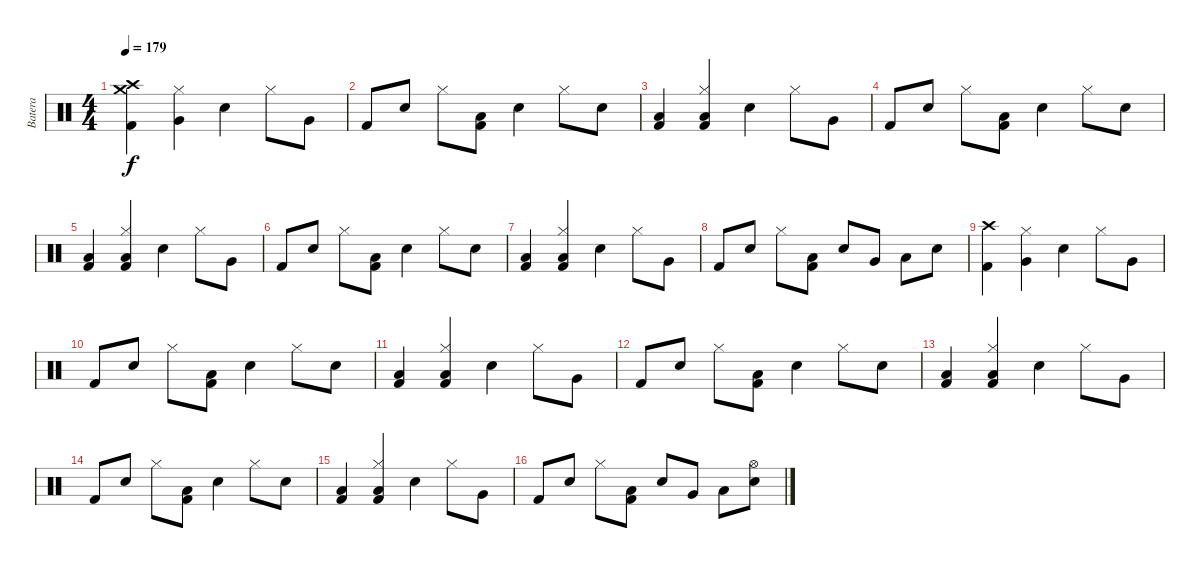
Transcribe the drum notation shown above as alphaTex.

\track ("Batera" "Batera") {instrument percussion}
\staff {score}
\articulation defaults
\ts (4 4)
\tempo 179
\clef neutral
\ks c
("Crash high (hit)" "Crash medium (hit)" "Kick (hit) 2").4{dy f} ("Hi-Hat (closed)" "Very Low Tom (hit)").4 "Electric Snare (hit)".4 "Hi-Hat (closed)".8 "Very Low Tom (hit)".8 |
"Kick (hit) 2".8 "Electric Snare (hit)".8 "Hi-Hat (closed)".8 ("Low Floor Tom (hit)" "Kick (hit) 2").8 "Electric Snare (hit)".4 "Hi-Hat (closed)".8 "Electric Snare (hit)".8 |
("Low Tom (hit)" "Kick (hit) 2").4 ("Hi-Hat (closed)" "Low Tom (hit)" "Kick (hit) 2").4 "Electric Snare (hit)".4 "Hi-Hat (closed)".8 "Very Low Tom (hit)".8 |
"Kick (hit) 2".8 "Electric Snare (hit)".8 "Hi-Hat (closed)".8 ("Low Floor Tom (hit)" "Kick (hit) 2").8 "Electric Snare (hit)".4 "Hi-Hat (closed)".8 "Electric Snare (hit)".8 |
("Low Tom (hit)" "Kick (hit) 2").4 ("Hi-Hat (closed)" "Low Tom (hit)" "Kick (hit) 2").4 "Electric Snare (hit)".4 "Hi-Hat (closed)".8 "Very Low Tom (hit)".8 |
"Kick (hit) 2".8 "Electric Snare (hit)".8 "Hi-Hat (closed)".8 ("Low Floor Tom (hit)" "Kick (hit) 2").8 "Electric Snare (hit)".4 "Hi-Hat (closed)".8 "Electric Snare (hit)".8 |
("Low Tom (hit)" "Kick (hit) 2").4 ("Hi-Hat (closed)" "Low Tom (hit)" "Kick (hit) 2").4 "Electric Snare (hit)".4 "Hi-Hat (closed)".8 "Very Low Tom (hit)".8 |
"Kick (hit) 2".8 "Electric Snare (hit)".8 "Hi-Hat (closed)".8 ("Low Floor Tom (hit)" "Kick (hit) 2").8 "Electric Snare (hit)".8 "Very Low Tom (hit)".8 "Low Floor Tom (hit)".8 "Electric Snare (hit)".8 |
("Crash high (hit)" "Kick (hit) 2").4 ("Hi-Hat (closed)" "Very Low Tom (hit)").4 "Electric Snare (hit)".4 "Hi-Hat (closed)".8 "Very Low Tom (hit)".8 |
"Kick (hit) 2".8 "Electric Snare (hit)".8 "Hi-Hat (closed)".8 ("Low Floor Tom (hit)" "Kick (hit) 2").8 "Electric Snare (hit)".4 "Hi-Hat (closed)".8 "Electric Snare (hit)".8 |
("Low Tom (hit)" "Kick (hit) 2").4 ("Hi-Hat (closed)" "Low Tom (hit)" "Kick (hit) 2").4 "Electric Snare (hit)".4 "Hi-Hat (closed)".8 "Very Low Tom (hit)".8 |
"Kick (hit) 2".8 "Electric Snare (hit)".8 "Hi-Hat (closed)".8 ("Low Floor Tom (hit)" "Kick (hit) 2").8 "Electric Snare (hit)".4 "Hi-Hat (closed)".8 "Electric Snare (hit)".8 |
("Low Tom (hit)" "Kick (hit) 2").4 ("Hi-Hat (closed)" "Low Tom (hit)" "Kick (hit) 2").4 "Electric Snare (hit)".4 "Hi-Hat (closed)".8 "Very Low Tom (hit)".8 |
"Kick (hit) 2".8 "Electric Snare (hit)".8 "Hi-Hat (closed)".8 ("Low Floor Tom (hit)" "Kick (hit) 2").8 "Electric Snare (hit)".4 "Hi-Hat (closed)".8 "Electric Snare (hit)".8 |
("Low Tom (hit)" "Kick (hit) 2").4 ("Hi-Hat (closed)" "Low Tom (hit)" "Kick (hit) 2").4 "Electric Snare (hit)".4 "Hi-Hat (closed)".8 "Very Low Tom (hit)".8 |
"Kick (hit) 2".8 "Electric Snare (hit)".8 "Hi-Hat (closed)".8 ("Low Floor Tom (hit)" "Kick (hit) 2").8 "Electric Snare (hit)".8 "Very Low Tom (hit)".8 "Low Floor Tom (hit)".8 ("Hi-Hat (open)" "Electric Snare (hit)").8
